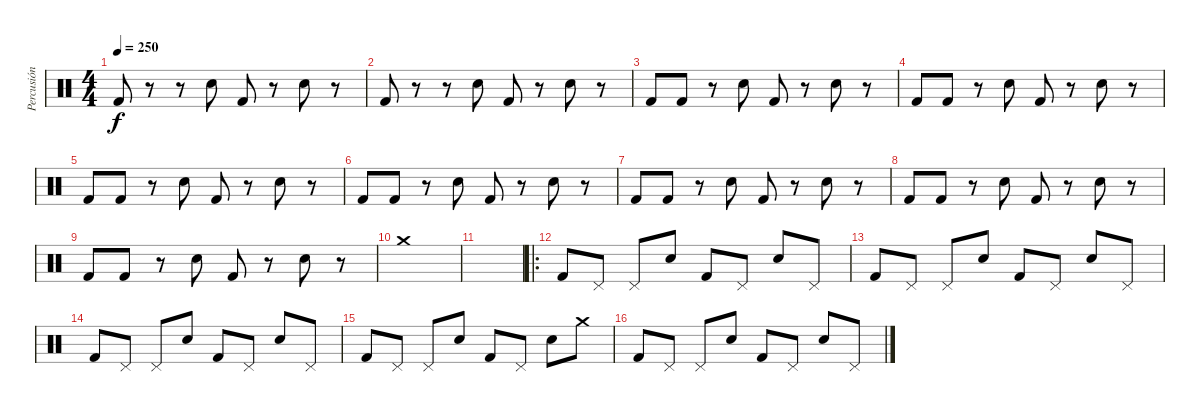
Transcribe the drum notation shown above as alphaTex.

\track ("Percusión" "Percusión") {instrument percussion}
\staff {score}
\articulation defaults
\ts (4 4)
\tempo 250
\clef neutral
\ks c "Kick (hit) 2".8{dy f}
r.8 r.8 "Electric Snare (hit)".8 "Kick (hit) 2".8 r.8 "Electric Snare (hit)".8 r.8 |
"Kick (hit) 2".8 r.8 r.8 "Electric Snare (hit)".8 "Kick (hit) 2".8 r.8 "Electric Snare (hit)".8 r.8 |
"Kick (hit) 2".8 "Kick (hit) 2".8 r.8 "Electric Snare (hit)".8 "Kick (hit) 2".8 r.8 "Electric Snare (hit)".8 r.8 |
"Kick (hit) 2".8 "Kick (hit) 2".8 r.8 "Electric Snare (hit)".8 "Kick (hit) 2".8 r.8 "Electric Snare (hit)".8 r.8 |
"Kick (hit) 2".8 "Kick (hit) 2".8 r.8 "Electric Snare (hit)".8 "Kick (hit) 2".8 r.8 "Electric Snare (hit)".8 r.8 |
"Kick (hit) 2".8 "Kick (hit) 2".8 r.8 "Electric Snare (hit)".8 "Kick (hit) 2".8 r.8 "Electric Snare (hit)".8 r.8 |
"Kick (hit) 2".8 "Kick (hit) 2".8 r.8 "Electric Snare (hit)".8 "Kick (hit) 2".8 r.8 "Electric Snare (hit)".8 r.8 |
"Kick (hit) 2".8 "Kick (hit) 2".8 r.8 "Electric Snare (hit)".8 "Kick (hit) 2".8 r.8 "Electric Snare (hit)".8 r.8 |
"Kick (hit) 2".8 "Kick (hit) 2".8 r.8 "Electric Snare (hit)".8 "Kick (hit) 2".8 r.8 "Electric Snare (hit)".8 r.8 |
"Crash medium (hit)".1 |
|
\ro "Kick (hit) 2".8 "Pedal Hi-Hat (hit)".8 "Pedal Hi-Hat (hit)".8 "Electric Snare (hit)".8 "Kick (hit) 2".8 "Pedal Hi-Hat (hit)".8 "Electric Snare (hit)".8 "Pedal Hi-Hat (hit)".8
|
"Kick (hit) 2".8 "Pedal Hi-Hat (hit)".8 "Pedal Hi-Hat (hit)".8 "Electric Snare (hit)".8 "Kick (hit) 2".8 "Pedal Hi-Hat (hit)".8 "Electric Snare (hit)".8 "Pedal Hi-Hat (hit)".8 |
"Kick (hit) 2".8 "Pedal Hi-Hat (hit)".8 "Pedal Hi-Hat (hit)".8 "Electric Snare (hit)".8 "Kick (hit) 2".8 "Pedal Hi-Hat (hit)".8 "Electric Snare (hit)".8 "Pedal Hi-Hat (hit)".8 |
"Kick (hit) 2".8 "Pedal Hi-Hat (hit)".8 "Pedal Hi-Hat (hit)".8 "Electric Snare (hit)".8 "Kick (hit) 2".8 "Pedal Hi-Hat (hit)".8 "Electric Snare (hit)".8 "Crash medium (hit)".8 |
"Kick (hit) 2".8 "Pedal Hi-Hat (hit)".8 "Pedal Hi-Hat (hit)".8 "Electric Snare (hit)".8 "Kick (hit) 2".8 "Pedal Hi-Hat (hit)".8 "Electric Snare (hit)".8 "Pedal Hi-Hat (hit)".8
